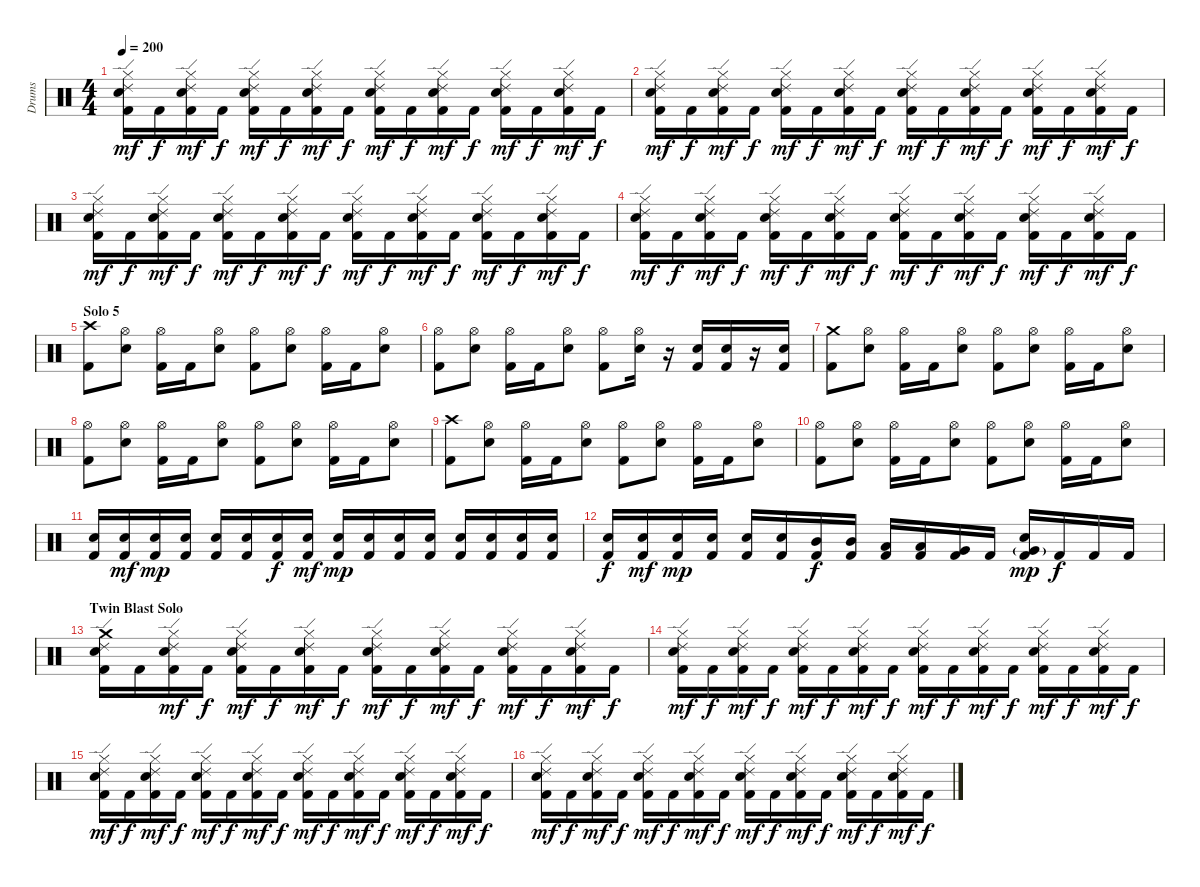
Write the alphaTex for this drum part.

\track ("Drums" "Drums") {instrument percussion}
\staff {score}
\articulation defaults
\ts (4 4)
\tempo 200
\clef neutral
\ks c
("Hi-Hat (closed)" "Ride (edge) 2" "Snare (hit) 2" "Kick (hit) 2").16{dy mf} "Kick (hit) 2".16{dy f} ("Hi-Hat (closed)" "Ride (edge) 2" "Snare (hit) 2" "Kick (hit) 2").16{dy mf} "Kick (hit) 2".16{dy f} ("Hi-Hat (closed)" "Ride (edge) 2" "Snare (hit) 2" "Kick (hit) 2").16{dy mf} "Kick (hit) 2".16{dy f} ("Hi-Hat (closed)" "Ride (edge) 2" "Snare (hit) 2" "Kick (hit) 2").16{dy mf} "Kick (hit) 2".16{dy f} ("Hi-Hat (closed)" "Ride (edge) 2" "Snare (hit) 2" "Kick (hit) 2").16{dy mf} "Kick (hit) 2".16{dy f} ("Hi-Hat (closed)" "Ride (edge) 2" "Snare (hit) 2" "Kick (hit) 2").16{dy mf} "Kick (hit) 2".16{dy f} ("Hi-Hat (closed)" "Ride (edge) 2" "Snare (hit) 2" "Kick (hit) 2").16{dy mf} "Kick (hit) 2".16{dy f} ("Hi-Hat (closed)" "Ride (edge) 2" "Snare (hit) 2" "Kick (hit) 2").16{dy mf} "Kick (hit) 2".16{dy f} |
("Hi-Hat (closed)" "Ride (edge) 2" "Snare (hit) 2" "Kick (hit) 2").16{dy mf} "Kick (hit) 2".16{dy f} ("Hi-Hat (closed)" "Ride (edge) 2" "Snare (hit) 2" "Kick (hit) 2").16{dy mf} "Kick (hit) 2".16{dy f} ("Hi-Hat (closed)" "Ride (edge) 2" "Snare (hit) 2" "Kick (hit) 2").16{dy mf} "Kick (hit) 2".16{dy f} ("Hi-Hat (closed)" "Ride (edge) 2" "Snare (hit) 2" "Kick (hit) 2").16{dy mf} "Kick (hit) 2".16{dy f} ("Hi-Hat (closed)" "Ride (edge) 2" "Snare (hit) 2" "Kick (hit) 2").16{dy mf} "Kick (hit) 2".16{dy f} ("Hi-Hat (closed)" "Ride (edge) 2" "Snare (hit) 2" "Kick (hit) 2").16{dy mf} "Kick (hit) 2".16{dy f} ("Hi-Hat (closed)" "Ride (edge) 2" "Snare (hit) 2" "Kick (hit) 2").16{dy mf} "Kick (hit) 2".16{dy f} ("Hi-Hat (closed)" "Ride (edge) 2" "Snare (hit) 2" "Kick (hit) 2").16{dy mf} "Kick (hit) 2".16{dy f} |
("Hi-Hat (closed)" "Ride (edge) 2" "Snare (hit) 2" "Kick (hit) 2").16{dy mf} "Kick (hit) 2".16{dy f} ("Hi-Hat (closed)" "Ride (edge) 2" "Snare (hit) 2" "Kick (hit) 2").16{dy mf} "Kick (hit) 2".16{dy f} ("Hi-Hat (closed)" "Ride (edge) 2" "Snare (hit) 2" "Kick (hit) 2").16{dy mf} "Kick (hit) 2".16{dy f} ("Hi-Hat (closed)" "Ride (edge) 2" "Snare (hit) 2" "Kick (hit) 2").16{dy mf} "Kick (hit) 2".16{dy f} ("Hi-Hat (closed)" "Ride (edge) 2" "Snare (hit) 2" "Kick (hit) 2").16{dy mf} "Kick (hit) 2".16{dy f} ("Hi-Hat (closed)" "Ride (edge) 2" "Snare (hit) 2" "Kick (hit) 2").16{dy mf} "Kick (hit) 2".16{dy f} ("Hi-Hat (closed)" "Ride (edge) 2" "Snare (hit) 2" "Kick (hit) 2").16{dy mf} "Kick (hit) 2".16{dy f} ("Hi-Hat (closed)" "Ride (edge) 2" "Snare (hit) 2" "Kick (hit) 2").16{dy mf} "Kick (hit) 2".16{dy f} |
("Hi-Hat (closed)" "Ride (edge) 2" "Snare (hit) 2" "Kick (hit) 2").16{dy mf} "Kick (hit) 2".16{dy f} ("Hi-Hat (closed)" "Ride (edge) 2" "Snare (hit) 2" "Kick (hit) 2").16{dy mf} "Kick (hit) 2".16{dy f} ("Hi-Hat (closed)" "Ride (edge) 2" "Snare (hit) 2" "Kick (hit) 2").16{dy mf} "Kick (hit) 2".16{dy f} ("Hi-Hat (closed)" "Ride (edge) 2" "Snare (hit) 2" "Kick (hit) 2").16{dy mf} "Kick (hit) 2".16{dy f} ("Hi-Hat (closed)" "Ride (edge) 2" "Snare (hit) 2" "Kick (hit) 2").16{dy mf} "Kick (hit) 2".16{dy f} ("Hi-Hat (closed)" "Ride (edge) 2" "Snare (hit) 2" "Kick (hit) 2").16{dy mf} "Kick (hit) 2".16{dy f} ("Hi-Hat (closed)" "Ride (edge) 2" "Snare (hit) 2" "Kick (hit) 2").16{dy mf} "Kick (hit) 2".16{dy f} ("Hi-Hat (closed)" "Ride (edge) 2" "Snare (hit) 2" "Kick (hit) 2").16{dy mf} "Kick (hit) 2".16{dy f} |
\section ("" "Solo 5")
("Crash high (hit)" "Kick (hit) 2").8 ("Hi-Hat (open)" "Snare (hit) 2").8 ("Hi-Hat (open)" "Kick (hit) 2").16 "Kick (hit) 2".16 ("Hi-Hat (open)" "Snare (hit) 2").8 ("Hi-Hat (open)" "Kick (hit) 2").8 ("Hi-Hat (open)" "Snare (hit) 2").8 ("Hi-Hat (open)" "Kick (hit) 2").16 "Kick (hit) 2".16 ("Hi-Hat (open)" "Snare (hit) 2").8 |
("Hi-Hat (open)" "Kick (hit) 2").8 ("Hi-Hat (open)" "Snare (hit) 2").8 ("Hi-Hat (open)" "Kick (hit) 2").16 "Kick (hit) 2".16 ("Hi-Hat (open)" "Snare (hit) 2").8 ("Hi-Hat (open)" "Kick (hit) 2").8 ("Hi-Hat (open)" "Snare (hit) 2").16 r.16 ("Snare (hit) 2" "Kick (hit) 2").16 ("Snare (hit) 2" "Kick (hit) 2").16 r.16 ("Snare (hit) 2" "Kick (hit) 2").16 |
("Crash medium (hit)" "Kick (hit) 2").8 ("Hi-Hat (open)" "Snare (hit) 2").8 ("Hi-Hat (open)" "Kick (hit) 2").16 "Kick (hit) 2".16 ("Hi-Hat (open)" "Snare (hit) 2").8 ("Hi-Hat (open)" "Kick (hit) 2").8 ("Hi-Hat (open)" "Snare (hit) 2").8 ("Hi-Hat (open)" "Kick (hit) 2").16 "Kick (hit) 2".16 ("Hi-Hat (open)" "Snare (hit) 2").8 |
("Hi-Hat (open)" "Kick (hit) 2").8 ("Hi-Hat (open)" "Snare (hit) 2").8 ("Hi-Hat (open)" "Kick (hit) 2").16 "Kick (hit) 2".16 ("Hi-Hat (open)" "Snare (hit) 2").8 ("Hi-Hat (open)" "Kick (hit) 2").8 ("Hi-Hat (open)" "Snare (hit) 2").8 ("Hi-Hat (open)" "Kick (hit) 2").16 "Kick (hit) 2".16 ("Hi-Hat (open)" "Snare (hit) 2").8 |
("Crash high (hit)" "Kick (hit) 2").8 ("Hi-Hat (open)" "Snare (hit) 2").8 ("Hi-Hat (open)" "Kick (hit) 2").16 "Kick (hit) 2".16 ("Hi-Hat (open)" "Snare (hit) 2").8 ("Hi-Hat (open)" "Kick (hit) 2").8 ("Hi-Hat (open)" "Snare (hit) 2").8 ("Hi-Hat (open)" "Kick (hit) 2").16 "Kick (hit) 2".16 ("Hi-Hat (open)" "Snare (hit) 2").8 |
("Hi-Hat (open)" "Kick (hit) 2").8 ("Hi-Hat (open)" "Snare (hit) 2").8 ("Hi-Hat (open)" "Kick (hit) 2").16 "Kick (hit) 2".16 ("Hi-Hat (open)" "Snare (hit) 2").8 ("Hi-Hat (open)" "Kick (hit) 2").8 ("Hi-Hat (open)" "Snare (hit) 2").8 ("Hi-Hat (open)" "Kick (hit) 2").16 "Kick (hit) 2".16 ("Hi-Hat (open)" "Snare (hit) 2").8 |
("Snare (hit) 2" "Kick (hit) 2").16 ("Snare (hit) 2" "Kick (hit) 2").16{dy mf} ("Snare (hit) 2" "Kick (hit) 2").16{dy mp} ("Snare (hit) 2" "Kick (hit) 2").16 ("Snare (hit) 2" "Kick (hit) 2").16 ("Snare (hit) 2" "Kick (hit) 2").16 ("Snare (hit) 2" "Kick (hit) 2").16{dy f} ("Snare (hit) 2" "Kick (hit) 2").16{dy mf} ("Snare (hit) 2" "Kick (hit) 2").16{dy mp} ("Snare (hit) 2" "Kick (hit) 2").16 ("Snare (hit) 2" "Kick (hit) 2").16 ("Snare (hit) 2" "Kick (hit) 2").16 ("Snare (hit) 2" "Kick (hit) 2").16 ("Snare (hit) 2" "Kick (hit) 2").16 ("Snare (hit) 2" "Kick (hit) 2").16 ("Snare (hit) 2" "Kick (hit) 2").16 |
("Snare (hit) 2" "Kick (hit) 2").16{dy f} ("Snare (hit) 2" "Kick (hit) 2").16{dy mf} ("Snare (hit) 2" "Kick (hit) 2").16{dy mp} ("Snare (hit) 2" "Kick (hit) 2").16 ("Snare (hit) 2" "Kick (hit) 2").16 ("Snare (hit) 2" "Kick (hit) 2").16 ("Mid Tom (hit)" "Kick (hit) 2").16{dy f} ("Mid Tom (hit)" "Kick (hit) 2").16 ("Low Tom (hit)" "Kick (hit) 2").16 ("Low Tom (hit)" "Kick (hit) 2").16 ("Very Low Tom (hit)" "Kick (hit) 2").16 "Kick (hit) 2".16 ("Very Low Tom (hit)"{g} "Snare (hit) 2" "Kick (hit) 2").16{dy mp} "Kick (hit) 2".16{dy f} "Kick (hit) 2".16 "Kick (hit) 2".16 |
\section ("" "Twin Blast Solo")
("Crash medium (hit)" "Ride (edge) 2" "Snare (hit) 2" "Kick (hit) 2").16 "Kick (hit) 2".16 ("Hi-Hat (closed)" "Ride (edge) 2" "Snare (hit) 2" "Kick (hit) 2").16{dy mf} "Kick (hit) 2".16{dy f} ("Hi-Hat (closed)" "Ride (edge) 2" "Snare (hit) 2" "Kick (hit) 2").16{dy mf} "Kick (hit) 2".16{dy f} ("Hi-Hat (closed)" "Ride (edge) 2" "Snare (hit) 2" "Kick (hit) 2").16{dy mf} "Kick (hit) 2".16{dy f} ("Hi-Hat (closed)" "Ride (edge) 2" "Snare (hit) 2" "Kick (hit) 2").16{dy mf} "Kick (hit) 2".16{dy f} ("Hi-Hat (closed)" "Ride (edge) 2" "Snare (hit) 2" "Kick (hit) 2").16{dy mf} "Kick (hit) 2".16{dy f} ("Hi-Hat (closed)" "Ride (edge) 2" "Snare (hit) 2" "Kick (hit) 2").16{dy mf} "Kick (hit) 2".16{dy f} ("Hi-Hat (closed)" "Ride (edge) 2" "Snare (hit) 2" "Kick (hit) 2").16{dy mf} "Kick (hit) 2".16{dy f} |
("Hi-Hat (closed)" "Ride (edge) 2" "Snare (hit) 2" "Kick (hit) 2").16{dy mf} "Kick (hit) 2".16{dy f} ("Hi-Hat (closed)" "Ride (edge) 2" "Snare (hit) 2" "Kick (hit) 2").16{dy mf} "Kick (hit) 2".16{dy f} ("Hi-Hat (closed)" "Ride (edge) 2" "Snare (hit) 2" "Kick (hit) 2").16{dy mf} "Kick (hit) 2".16{dy f} ("Hi-Hat (closed)" "Ride (edge) 2" "Snare (hit) 2" "Kick (hit) 2").16{dy mf} "Kick (hit) 2".16{dy f} ("Hi-Hat (closed)" "Ride (edge) 2" "Snare (hit) 2" "Kick (hit) 2").16{dy mf} "Kick (hit) 2".16{dy f} ("Hi-Hat (closed)" "Ride (edge) 2" "Snare (hit) 2" "Kick (hit) 2").16{dy mf} "Kick (hit) 2".16{dy f} ("Hi-Hat (closed)" "Ride (edge) 2" "Snare (hit) 2" "Kick (hit) 2").16{dy mf} "Kick (hit) 2".16{dy f} ("Hi-Hat (closed)" "Ride (edge) 2" "Snare (hit) 2" "Kick (hit) 2").16{dy mf} "Kick (hit) 2".16{dy f} |
("Hi-Hat (closed)" "Ride (edge) 2" "Snare (hit) 2" "Kick (hit) 2").16{dy mf} "Kick (hit) 2".16{dy f} ("Hi-Hat (closed)" "Ride (edge) 2" "Snare (hit) 2" "Kick (hit) 2").16{dy mf} "Kick (hit) 2".16{dy f} ("Hi-Hat (closed)" "Ride (edge) 2" "Snare (hit) 2" "Kick (hit) 2").16{dy mf} "Kick (hit) 2".16{dy f} ("Hi-Hat (closed)" "Ride (edge) 2" "Snare (hit) 2" "Kick (hit) 2").16{dy mf} "Kick (hit) 2".16{dy f} ("Hi-Hat (closed)" "Ride (edge) 2" "Snare (hit) 2" "Kick (hit) 2").16{dy mf} "Kick (hit) 2".16{dy f} ("Hi-Hat (closed)" "Ride (edge) 2" "Snare (hit) 2" "Kick (hit) 2").16{dy mf} "Kick (hit) 2".16{dy f} ("Hi-Hat (closed)" "Ride (edge) 2" "Snare (hit) 2" "Kick (hit) 2").16{dy mf} "Kick (hit) 2".16{dy f} ("Hi-Hat (closed)" "Ride (edge) 2" "Snare (hit) 2" "Kick (hit) 2").16{dy mf} "Kick (hit) 2".16{dy f} |
("Hi-Hat (closed)" "Ride (edge) 2" "Snare (hit) 2" "Kick (hit) 2").16{dy mf} "Kick (hit) 2".16{dy f} ("Hi-Hat (closed)" "Ride (edge) 2" "Snare (hit) 2" "Kick (hit) 2").16{dy mf} "Kick (hit) 2".16{dy f} ("Hi-Hat (closed)" "Ride (edge) 2" "Snare (hit) 2" "Kick (hit) 2").16{dy mf} "Kick (hit) 2".16{dy f} ("Hi-Hat (closed)" "Ride (edge) 2" "Snare (hit) 2" "Kick (hit) 2").16{dy mf} "Kick (hit) 2".16{dy f} ("Hi-Hat (closed)" "Ride (edge) 2" "Snare (hit) 2" "Kick (hit) 2").16{dy mf} "Kick (hit) 2".16{dy f} ("Hi-Hat (closed)" "Ride (edge) 2" "Snare (hit) 2" "Kick (hit) 2").16{dy mf} "Kick (hit) 2".16{dy f} ("Hi-Hat (closed)" "Ride (edge) 2" "Snare (hit) 2" "Kick (hit) 2").16{dy mf} "Kick (hit) 2".16{dy f} ("Hi-Hat (closed)" "Ride (edge) 2" "Snare (hit) 2" "Kick (hit) 2").16{dy mf} "Kick (hit) 2".16{dy f}
